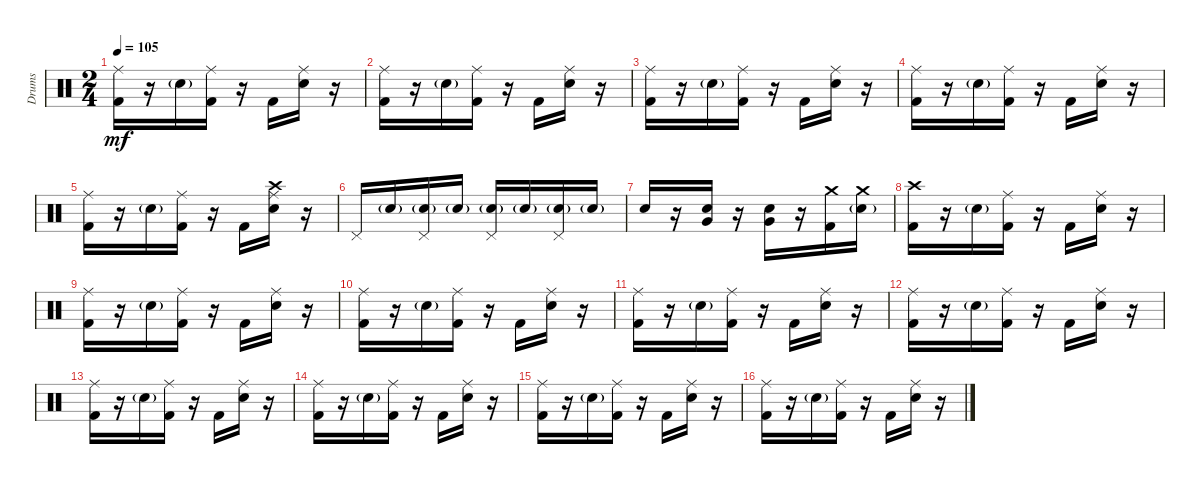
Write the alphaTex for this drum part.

\defaultSystemsLayout 4
\bracketExtendMode groupsimilarinstruments
\otherSystemsTrackNameOrientation horizontal
\track ("Godd" "Drums") {instrument percussion}
\staff {score}
\articulation defaults
\ts (2 4)
\tempo 105
\clef neutral
\ks c
("Ride (middle)" "Kick (hit) 2").16{dy mf} r.16 "Snare (hit) 2"{g}.16 ("Kick (hit) 2" "Ride (middle)").16 r.16 "Kick (hit) 2".16 ("Snare (hit) 2" "Ride (middle)").16 r.16 |
("Ride (middle)" "Kick (hit) 2").16 r.16 "Snare (hit) 2"{g}.16 ("Kick (hit) 2" "Ride (middle)").16 r.16 "Kick (hit) 2".16 ("Snare (hit) 2" "Ride (middle)").16 r.16 |
("Ride (middle)" "Kick (hit) 2").16 r.16 "Snare (hit) 2"{g}.16 ("Kick (hit) 2" "Ride (middle)").16 r.16 "Kick (hit) 2".16 ("Snare (hit) 2" "Ride (middle)").16 r.16 |
("Ride (middle)" "Kick (hit) 2").16 r.16 "Snare (hit) 2"{g}.16 ("Kick (hit) 2" "Ride (middle)").16 r.16 "Kick (hit) 2".16 ("Snare (hit) 2" "Ride (middle)").16 r.16 |
("Ride (middle)" "Kick (hit) 2").16 r.16 "Snare (hit) 2"{g}.16 ("Kick (hit) 2" "Ride (middle)").16 r.16 "Kick (hit) 2".16 ("Snare (hit) 2" "Ride (middle)" "Crash high (hit)").16 r.16 |
"Pedal Hi-Hat (hit)".16 "Snare (hit) 2"{g}.16 ("Snare (hit) 2"{g} "Pedal Hi-Hat (hit)").16 "Snare (hit) 2"{g}.16 ("Pedal Hi-Hat (hit)" "Snare (hit) 2"{g}).16 "Snare (hit) 2"{g}.16 ("Snare (hit) 2"{g} "Pedal Hi-Hat (hit)").16 "Snare (hit) 2"{g}.16 |
"Snare (hit) 2".16 r.16 ("Snare (hit) 2" "Very Low Tom (hit)").16 r.16 ("Snare (hit) 2" "Very Low Tom (hit)").16 r.16 ("Kick (hit) 2" "Crash medium (hit)").16 ("Crash medium (hit)" "Snare (hit) 2"{g}).16 |
("Kick (hit) 2" "Crash high (hit)").16 r.16 "Snare (hit) 2"{g}.16 ("Kick (hit) 2" "Ride (middle)").16 r.16 "Kick (hit) 2".16 ("Ride (middle)" "Snare (hit) 2").16 r.16 |
("Ride (middle)" "Kick (hit) 2").16 r.16 "Snare (hit) 2"{g}.16 ("Kick (hit) 2" "Ride (middle)").16 r.16 "Kick (hit) 2".16 ("Snare (hit) 2" "Ride (middle)").16 r.16 |
("Ride (middle)" "Kick (hit) 2").16 r.16 "Snare (hit) 2"{g}.16 ("Kick (hit) 2" "Ride (middle)").16 r.16 "Kick (hit) 2".16 ("Snare (hit) 2" "Ride (middle)").16 r.16 |
("Ride (middle)" "Kick (hit) 2").16 r.16 "Snare (hit) 2"{g}.16 ("Kick (hit) 2" "Ride (middle)").16 r.16 "Kick (hit) 2".16 ("Snare (hit) 2" "Ride (middle)").16 r.16 |
("Ride (middle)" "Kick (hit) 2").16 r.16 "Snare (hit) 2"{g}.16 ("Kick (hit) 2" "Ride (middle)").16 r.16 "Kick (hit) 2".16 ("Snare (hit) 2" "Ride (middle)").16 r.16 |
("Ride (middle)" "Kick (hit) 2").16 r.16 "Snare (hit) 2"{g}.16 ("Kick (hit) 2" "Ride (middle)").16 r.16 "Kick (hit) 2".16 ("Snare (hit) 2" "Ride (middle)").16 r.16 |
("Ride (middle)" "Kick (hit) 2").16 r.16 "Snare (hit) 2"{g}.16 ("Kick (hit) 2" "Ride (middle)").16 r.16 "Kick (hit) 2".16 ("Snare (hit) 2" "Ride (middle)").16 r.16 |
("Ride (middle)" "Kick (hit) 2").16 r.16 "Snare (hit) 2"{g}.16 ("Kick (hit) 2" "Ride (middle)").16 r.16 "Kick (hit) 2".16 ("Snare (hit) 2" "Ride (middle)").16 r.16 |
("Ride (middle)" "Kick (hit) 2").16 r.16 "Snare (hit) 2"{g}.16 ("Kick (hit) 2" "Ride (middle)").16 r.16 "Kick (hit) 2".16 ("Snare (hit) 2" "Ride (middle)").16 r.16
